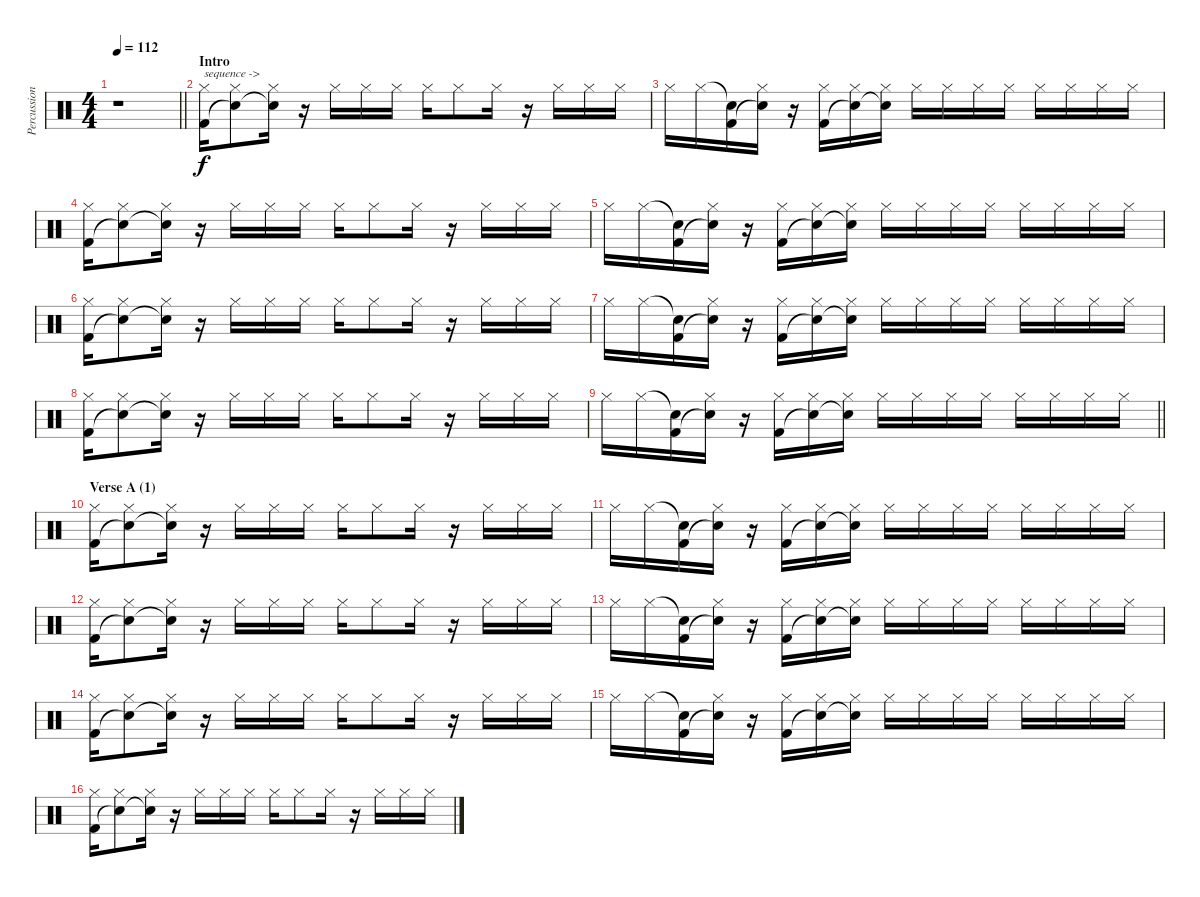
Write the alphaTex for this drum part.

\track ("Percussion" "Percussion") {instrument percussion}
\staff {score}
\articulation defaults
\ts (4 4)
\tempo 112
\clef neutral
\barLineRight lightlight
\ks c
r.1{dy f} |
\section ("" "Intro")
("Hi-Hat (closed)" "Kick (hit) 2").16{txt "sequence ->"} ("Hi-Hat (closed)" "Snare (hit)"{t}).8 ("Hi-Hat (closed)" "Snare (hit)"{t}).16 r.16 "Hi-Hat (closed)".16 "Hi-Hat (closed)".16 "Hi-Hat (closed)".16 "Hi-Hat (closed)".16 "Hi-Hat (closed)".8 "Hi-Hat (closed)".16 r.16 "Hi-Hat (closed)".16 "Hi-Hat (closed)".16 "Hi-Hat (closed)".16 |
"Hi-Hat (closed)".16 "Hi-Hat (closed)".16 ("Snare (hit)"{t} "Kick (hit) 2").16 ("Hi-Hat (closed)" "Snare (hit)"{t}).16 r.16 ("Hi-Hat (closed)" "Kick (hit) 2").16 ("Hi-Hat (closed)" "Snare (hit)"{t}).16 ("Hi-Hat (closed)" "Snare (hit)"{t}).16 "Hi-Hat (closed)".16 "Hi-Hat (closed)".16 "Hi-Hat (closed)".16 "Hi-Hat (closed)".16 "Hi-Hat (closed)".16 "Hi-Hat (closed)".16 "Hi-Hat (closed)".16 "Hi-Hat (closed)".16 |
("Hi-Hat (closed)" "Kick (hit) 2").16 ("Hi-Hat (closed)" "Snare (hit)"{t}).8 ("Hi-Hat (closed)" "Snare (hit)"{t}).16 r.16 "Hi-Hat (closed)".16 "Hi-Hat (closed)".16 "Hi-Hat (closed)".16 "Hi-Hat (closed)".16 "Hi-Hat (closed)".8 "Hi-Hat (closed)".16 r.16 "Hi-Hat (closed)".16 "Hi-Hat (closed)".16 "Hi-Hat (closed)".16 |
"Hi-Hat (closed)".16 "Hi-Hat (closed)".16 ("Snare (hit)"{t} "Kick (hit) 2").16 ("Hi-Hat (closed)" "Snare (hit)"{t}).16 r.16 ("Hi-Hat (closed)" "Kick (hit) 2").16 ("Hi-Hat (closed)" "Snare (hit)"{t}).16 ("Hi-Hat (closed)" "Snare (hit)"{t}).16 "Hi-Hat (closed)".16 "Hi-Hat (closed)".16 "Hi-Hat (closed)".16 "Hi-Hat (closed)".16 "Hi-Hat (closed)".16 "Hi-Hat (closed)".16 "Hi-Hat (closed)".16 "Hi-Hat (closed)".16 |
("Hi-Hat (closed)" "Kick (hit) 2").16 ("Hi-Hat (closed)" "Snare (hit)"{t}).8 ("Hi-Hat (closed)" "Snare (hit)"{t}).16 r.16 "Hi-Hat (closed)".16 "Hi-Hat (closed)".16 "Hi-Hat (closed)".16 "Hi-Hat (closed)".16 "Hi-Hat (closed)".8 "Hi-Hat (closed)".16 r.16 "Hi-Hat (closed)".16 "Hi-Hat (closed)".16 "Hi-Hat (closed)".16 |
"Hi-Hat (closed)".16 "Hi-Hat (closed)".16 ("Snare (hit)"{t} "Kick (hit) 2").16 ("Hi-Hat (closed)" "Snare (hit)"{t}).16 r.16 ("Hi-Hat (closed)" "Kick (hit) 2").16 ("Hi-Hat (closed)" "Snare (hit)"{t}).16 ("Hi-Hat (closed)" "Snare (hit)"{t}).16 "Hi-Hat (closed)".16 "Hi-Hat (closed)".16 "Hi-Hat (closed)".16 "Hi-Hat (closed)".16 "Hi-Hat (closed)".16 "Hi-Hat (closed)".16 "Hi-Hat (closed)".16 "Hi-Hat (closed)".16 |
("Hi-Hat (closed)" "Kick (hit) 2").16 ("Hi-Hat (closed)" "Snare (hit)"{t}).8 ("Hi-Hat (closed)" "Snare (hit)"{t}).16 r.16 "Hi-Hat (closed)".16 "Hi-Hat (closed)".16 "Hi-Hat (closed)".16 "Hi-Hat (closed)".16 "Hi-Hat (closed)".8 "Hi-Hat (closed)".16 r.16 "Hi-Hat (closed)".16 "Hi-Hat (closed)".16 "Hi-Hat (closed)".16 |
\barLineRight lightlight "Hi-Hat (closed)".16 "Hi-Hat (closed)".16
("Snare (hit)"{t} "Kick (hit) 2").16 ("Hi-Hat (closed)" "Snare (hit)"{t}).16 r.16 ("Hi-Hat (closed)" "Kick (hit) 2").16 ("Hi-Hat (closed)" "Snare (hit)"{t}).16 ("Hi-Hat (closed)" "Snare (hit)"{t}).16 "Hi-Hat (closed)".16 "Hi-Hat (closed)".16 "Hi-Hat (closed)".16 "Hi-Hat (closed)".16 "Hi-Hat (closed)".16 "Hi-Hat (closed)".16 "Hi-Hat (closed)".16 "Hi-Hat (closed)".16 |
\section ("" "Verse A (1)")
("Hi-Hat (closed)" "Kick (hit) 2").16 ("Hi-Hat (closed)" "Snare (hit)"{t}).8 ("Hi-Hat (closed)" "Snare (hit)"{t}).16 r.16 "Hi-Hat (closed)".16 "Hi-Hat (closed)".16 "Hi-Hat (closed)".16 "Hi-Hat (closed)".16 "Hi-Hat (closed)".8 "Hi-Hat (closed)".16 r.16 "Hi-Hat (closed)".16 "Hi-Hat (closed)".16 "Hi-Hat (closed)".16 |
"Hi-Hat (closed)".16 "Hi-Hat (closed)".16 ("Snare (hit)"{t} "Kick (hit) 2").16 ("Hi-Hat (closed)" "Snare (hit)"{t}).16 r.16 ("Hi-Hat (closed)" "Kick (hit) 2").16 ("Hi-Hat (closed)" "Snare (hit)"{t}).16 ("Hi-Hat (closed)" "Snare (hit)"{t}).16 "Hi-Hat (closed)".16 "Hi-Hat (closed)".16 "Hi-Hat (closed)".16 "Hi-Hat (closed)".16 "Hi-Hat (closed)".16 "Hi-Hat (closed)".16 "Hi-Hat (closed)".16 "Hi-Hat (closed)".16 |
("Hi-Hat (closed)" "Kick (hit) 2").16 ("Hi-Hat (closed)" "Snare (hit)"{t}).8 ("Hi-Hat (closed)" "Snare (hit)"{t}).16 r.16 "Hi-Hat (closed)".16 "Hi-Hat (closed)".16 "Hi-Hat (closed)".16 "Hi-Hat (closed)".16 "Hi-Hat (closed)".8 "Hi-Hat (closed)".16 r.16 "Hi-Hat (closed)".16 "Hi-Hat (closed)".16 "Hi-Hat (closed)".16 |
"Hi-Hat (closed)".16 "Hi-Hat (closed)".16 ("Snare (hit)"{t} "Kick (hit) 2").16 ("Hi-Hat (closed)" "Snare (hit)"{t}).16 r.16 ("Hi-Hat (closed)" "Kick (hit) 2").16 ("Hi-Hat (closed)" "Snare (hit)"{t}).16 ("Hi-Hat (closed)" "Snare (hit)"{t}).16 "Hi-Hat (closed)".16 "Hi-Hat (closed)".16 "Hi-Hat (closed)".16 "Hi-Hat (closed)".16 "Hi-Hat (closed)".16 "Hi-Hat (closed)".16 "Hi-Hat (closed)".16 "Hi-Hat (closed)".16 |
("Hi-Hat (closed)" "Kick (hit) 2").16 ("Hi-Hat (closed)" "Snare (hit)"{t}).8 ("Hi-Hat (closed)" "Snare (hit)"{t}).16 r.16 "Hi-Hat (closed)".16 "Hi-Hat (closed)".16 "Hi-Hat (closed)".16 "Hi-Hat (closed)".16 "Hi-Hat (closed)".8 "Hi-Hat (closed)".16 r.16 "Hi-Hat (closed)".16 "Hi-Hat (closed)".16 "Hi-Hat (closed)".16 |
"Hi-Hat (closed)".16 "Hi-Hat (closed)".16 ("Snare (hit)"{t} "Kick (hit) 2").16 ("Hi-Hat (closed)" "Snare (hit)"{t}).16 r.16 ("Hi-Hat (closed)" "Kick (hit) 2").16 ("Hi-Hat (closed)" "Snare (hit)"{t}).16 ("Hi-Hat (closed)" "Snare (hit)"{t}).16 "Hi-Hat (closed)".16 "Hi-Hat (closed)".16 "Hi-Hat (closed)".16 "Hi-Hat (closed)".16 "Hi-Hat (closed)".16 "Hi-Hat (closed)".16 "Hi-Hat (closed)".16 "Hi-Hat (closed)".16 |
("Hi-Hat (closed)" "Kick (hit) 2").16 ("Hi-Hat (closed)" "Snare (hit)"{t}).8 ("Hi-Hat (closed)" "Snare (hit)"{t}).16 r.16 "Hi-Hat (closed)".16 "Hi-Hat (closed)".16 "Hi-Hat (closed)".16 "Hi-Hat (closed)".16 "Hi-Hat (closed)".8 "Hi-Hat (closed)".16 r.16 "Hi-Hat (closed)".16 "Hi-Hat (closed)".16 "Hi-Hat (closed)".16
